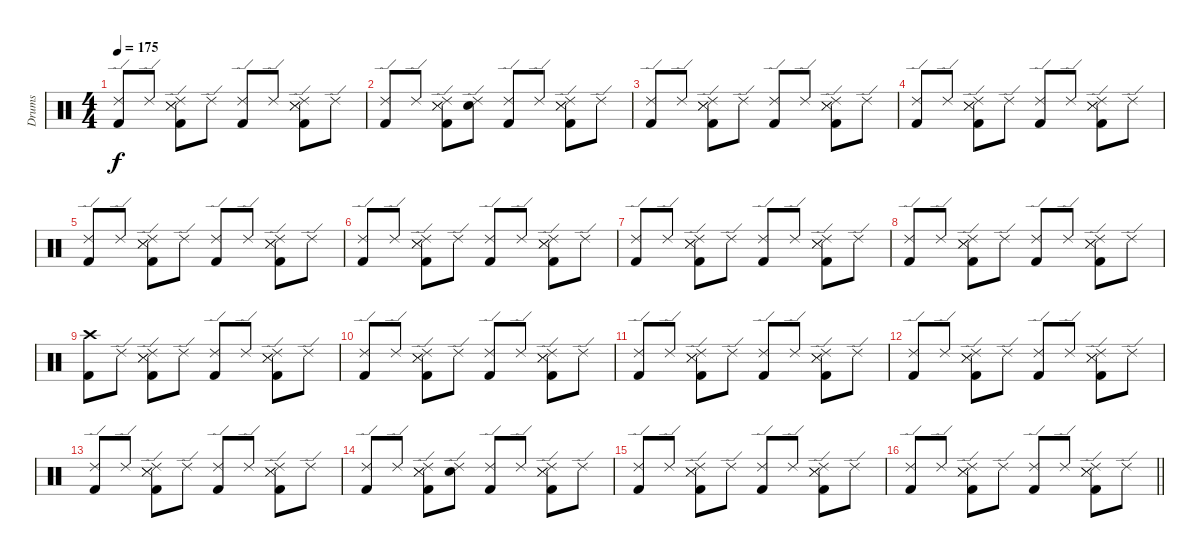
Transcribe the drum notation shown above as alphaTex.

\track ("Drums" "Drums") {instrument percussion}
\staff {score}
\articulation defaults
\ts (4 4)
\tempo 175
\clef neutral
\ks c
("Ride (edge) 2" "Kick (hit) 2").8{dy f} "Ride (edge) 2".8 ("Ride (edge) 2" "Snare (side stick) 3" "Snare (side stick) 3" "Kick (hit) 2").8 "Ride (edge) 2".8 ("Ride (edge) 2" "Kick (hit) 2").8 "Ride (edge) 2".8 ("Ride (edge) 2" "Snare (side stick) 3" "Snare (side stick) 3" "Kick (hit) 2").8 "Ride (edge) 2".8 |
("Ride (edge) 2" "Kick (hit) 2").8 "Ride (edge) 2".8 ("Ride (edge) 2" "Snare (side stick) 3" "Snare (side stick) 3" "Kick (hit) 2").8 ("Ride (edge) 2" "Snare (hit)").8 ("Ride (edge) 2" "Kick (hit) 2").8 "Ride (edge) 2".8 ("Ride (edge) 2" "Snare (side stick) 3" "Snare (side stick) 3" "Kick (hit) 2").8 "Ride (edge) 2".8 |
("Ride (edge) 2" "Kick (hit) 2").8 "Ride (edge) 2".8 ("Ride (edge) 2" "Snare (side stick) 3" "Snare (side stick) 3" "Kick (hit) 2").8 "Ride (edge) 2".8 ("Ride (edge) 2" "Kick (hit) 2").8 "Ride (edge) 2".8 ("Ride (edge) 2" "Snare (side stick) 3" "Snare (side stick) 3" "Kick (hit) 2").8 "Ride (edge) 2".8 |
("Ride (edge) 2" "Kick (hit) 2").8 "Ride (edge) 2".8 ("Ride (edge) 2" "Snare (side stick) 3" "Snare (side stick) 3" "Kick (hit) 2").8 "Ride (edge) 2".8 ("Ride (edge) 2" "Kick (hit) 2").8 "Ride (edge) 2".8 ("Ride (edge) 2" "Snare (side stick) 3" "Snare (side stick) 3" "Kick (hit) 2").8 "Ride (edge) 2".8 |
("Ride (edge) 2" "Kick (hit) 2").8 "Ride (edge) 2".8 ("Ride (edge) 2" "Snare (side stick) 3" "Snare (side stick) 3" "Kick (hit) 2").8 "Ride (edge) 2".8 ("Ride (edge) 2" "Kick (hit) 2").8 "Ride (edge) 2".8 ("Ride (edge) 2" "Snare (side stick) 3" "Snare (side stick) 3" "Kick (hit) 2").8 "Ride (edge) 2".8 |
("Ride (edge) 2" "Kick (hit) 2").8 "Ride (edge) 2".8 ("Ride (edge) 2" "Snare (side stick) 3" "Snare (side stick) 3" "Kick (hit) 2").8 "Ride (edge) 2".8 ("Ride (edge) 2" "Kick (hit) 2").8 "Ride (edge) 2".8 ("Ride (edge) 2" "Snare (side stick) 3" "Snare (side stick) 3" "Kick (hit) 2").8 "Ride (edge) 2".8 |
("Ride (edge) 2" "Kick (hit) 2").8 "Ride (edge) 2".8 ("Ride (edge) 2" "Snare (side stick) 3" "Snare (side stick) 3" "Kick (hit) 2").8 "Ride (edge) 2".8 ("Ride (edge) 2" "Kick (hit) 2").8 "Ride (edge) 2".8 ("Ride (edge) 2" "Snare (side stick) 3" "Snare (side stick) 3" "Kick (hit) 2").8 "Ride (edge) 2".8 |
("Ride (edge) 2" "Kick (hit) 2").8 "Ride (edge) 2".8 ("Ride (edge) 2" "Snare (side stick) 3" "Snare (side stick) 3" "Kick (hit) 2").8 "Ride (edge) 2".8 ("Ride (edge) 2" "Kick (hit) 2").8 "Ride (edge) 2".8 ("Ride (edge) 2" "Snare (side stick) 3" "Snare (side stick) 3" "Kick (hit) 2").8 "Ride (edge) 2".8 |
("Crash high (hit)" "Kick (hit) 2").8 "Ride (edge) 2".8 ("Ride (edge) 2" "Snare (side stick) 3" "Snare (side stick) 3" "Kick (hit) 2").8 "Ride (edge) 2".8 ("Ride (edge) 2" "Kick (hit) 2").8 "Ride (edge) 2".8 ("Ride (edge) 2" "Snare (side stick) 3" "Snare (side stick) 3" "Kick (hit) 2").8 "Ride (edge) 2".8 |
("Ride (edge) 2" "Kick (hit) 2").8 "Ride (edge) 2".8 ("Ride (edge) 2" "Snare (side stick) 3" "Snare (side stick) 3" "Kick (hit) 2").8 "Ride (edge) 2".8 ("Ride (edge) 2" "Kick (hit) 2").8 "Ride (edge) 2".8 ("Ride (edge) 2" "Snare (side stick) 3" "Snare (side stick) 3" "Kick (hit) 2").8 "Ride (edge) 2".8 |
("Ride (edge) 2" "Kick (hit) 2").8 "Ride (edge) 2".8 ("Ride (edge) 2" "Snare (side stick) 3" "Snare (side stick) 3" "Kick (hit) 2").8 "Ride (edge) 2".8 ("Ride (edge) 2" "Kick (hit) 2").8 "Ride (edge) 2".8 ("Ride (edge) 2" "Snare (side stick) 3" "Snare (side stick) 3" "Kick (hit) 2").8 "Ride (edge) 2".8 |
("Ride (edge) 2" "Kick (hit) 2").8 "Ride (edge) 2".8 ("Ride (edge) 2" "Snare (side stick) 3" "Snare (side stick) 3" "Kick (hit) 2").8 "Ride (edge) 2".8 ("Ride (edge) 2" "Kick (hit) 2").8 "Ride (edge) 2".8 ("Ride (edge) 2" "Snare (side stick) 3" "Snare (side stick) 3" "Kick (hit) 2").8 "Ride (edge) 2".8 |
("Ride (edge) 2" "Kick (hit) 2").8 "Ride (edge) 2".8 ("Ride (edge) 2" "Snare (side stick) 3" "Snare (side stick) 3" "Kick (hit) 2").8 "Ride (edge) 2".8 ("Ride (edge) 2" "Kick (hit) 2").8 "Ride (edge) 2".8 ("Ride (edge) 2" "Snare (side stick) 3" "Snare (side stick) 3" "Kick (hit) 2").8 "Ride (edge) 2".8 |
("Ride (edge) 2" "Kick (hit) 2").8 "Ride (edge) 2".8 ("Ride (edge) 2" "Snare (side stick) 3" "Snare (side stick) 3" "Kick (hit) 2").8 ("Ride (edge) 2" "Snare (hit)").8 ("Ride (edge) 2" "Kick (hit) 2").8 "Ride (edge) 2".8 ("Ride (edge) 2" "Snare (side stick) 3" "Snare (side stick) 3" "Kick (hit) 2").8 "Ride (edge) 2".8 |
("Ride (edge) 2" "Kick (hit) 2").8 "Ride (edge) 2".8 ("Ride (edge) 2" "Snare (side stick) 3" "Snare (side stick) 3" "Kick (hit) 2").8 "Ride (edge) 2".8 ("Ride (edge) 2" "Kick (hit) 2").8 "Ride (edge) 2".8 ("Ride (edge) 2" "Snare (side stick) 3" "Snare (side stick) 3" "Kick (hit) 2").8 "Ride (edge) 2".8 |
\barLineRight lightlight
("Ride (edge) 2" "Kick (hit) 2").8 "Ride (edge) 2".8 ("Ride (edge) 2" "Snare (side stick) 3" "Snare (side stick) 3" "Kick (hit) 2").8 "Ride (edge) 2".8 ("Ride (edge) 2" "Kick (hit) 2").8 "Ride (edge) 2".8 ("Ride (edge) 2" "Snare (side stick) 3" "Snare (side stick) 3" "Kick (hit) 2").8 "Ride (edge) 2".8
